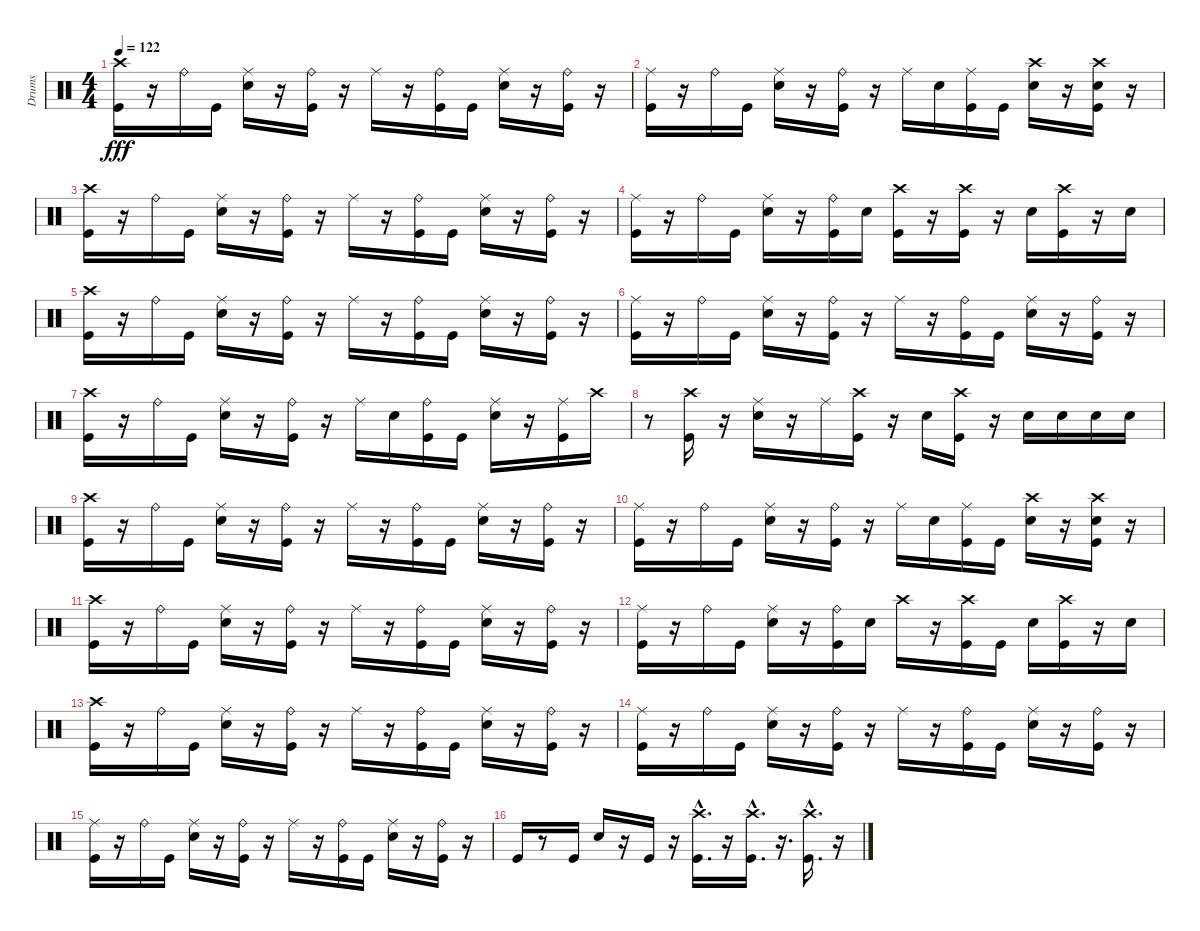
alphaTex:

\track ("Drums" "Drums") {instrument percussion}
\staff {score}
\articulation defaults
\ts (4 4)
\tempo 122
\clef neutral
\ks c
("Crash high (hit)" "Kick (hit)").16{dy fff} r.16 "Ride (bell)".16 "Kick (hit)".16 ("Snare (hit) 2" "Ride (middle)").16 r.16 ("Kick (hit)" "Ride (bell)").16 r.16 "Ride (middle)".16 r.16 ("Kick (hit)" "Ride (bell)").16 "Kick (hit)".16 ("Snare (hit) 2" "Ride (middle)").16 r.16 ("Kick (hit)" "Ride (bell)").16 r.16 |
("Ride (middle)" "Kick (hit)").16 r.16 "Ride (bell)".16 "Kick (hit)".16 ("Ride (middle)" "Snare (hit) 2").16 r.16 ("Ride (bell)" "Kick (hit)").16 r.16 "Ride (middle)".16 "Snare (hit) 2".16 ("Ride (middle)" "Kick (hit)").16 "Kick (hit)".16 ("Crash high (hit)" "Snare (hit) 2").16 r.16 ("Crash high (hit)" "Snare (hit) 2" "Kick (hit)").16 r.16 |
("Crash high (hit)" "Kick (hit)").16 r.16 "Ride (bell)".16 "Kick (hit)".16 ("Snare (hit) 2" "Ride (middle)").16 r.16 ("Kick (hit)" "Ride (bell)").16 r.16 "Ride (middle)".16 r.16 ("Kick (hit)" "Ride (bell)").16 "Kick (hit)".16 ("Snare (hit) 2" "Ride (middle)").16 r.16 ("Kick (hit)" "Ride (bell)").16 r.16 |
("Ride (middle)" "Kick (hit)").16 r.16 "Ride (bell)".16 "Kick (hit)".16 ("Ride (middle)" "Snare (hit) 2").16 r.16 ("Ride (bell)" "Kick (hit)").16 "Snare (hit) 2".16 ("Crash high (hit)" "Kick (hit)").16 r.16 ("Crash high (hit)" "Kick (hit)").16 r.16 "Snare (hit) 2".16 ("Crash high (hit)" "Kick (hit)").16 r.16 "Snare (hit) 2".16 |
("Crash high (hit)" "Kick (hit)").16 r.16 "Ride (bell)".16 "Kick (hit)".16 ("Snare (hit) 2" "Ride (middle)").16 r.16 ("Kick (hit)" "Ride (bell)").16 r.16 "Ride (middle)".16 r.16 ("Kick (hit)" "Ride (bell)").16 "Kick (hit)".16 ("Snare (hit) 2" "Ride (middle)").16 r.16 ("Kick (hit)" "Ride (bell)").16 r.16 |
("Ride (middle)" "Kick (hit)").16 r.16 "Ride (bell)".16 "Kick (hit)".16 ("Ride (middle)" "Snare (hit) 2").16 r.16 ("Ride (bell)" "Kick (hit)").16 r.16 "Ride (middle)".16 r.16 ("Ride (bell)" "Kick (hit)").16 "Kick (hit)".16 ("Ride (middle)" "Snare (hit) 2").16 r.16 ("Ride (bell)" "Kick (hit)").16 r.16 |
("Crash high (hit)" "Kick (hit)").16 r.16 "Ride (bell)".16 "Kick (hit)".16 ("Snare (hit) 2" "Ride (middle)").16 r.16 ("Kick (hit)" "Ride (bell)").16 r.16 "Ride (middle)".16 "Snare (hit) 2".16 ("Kick (hit)" "Ride (bell)").16 "Kick (hit)".16 ("Snare (hit) 2" "Ride (middle)").16 r.16 ("Kick (hit)" "Ride (middle)").16 "Crash high (hit)".16 |
r.8 ("Crash high (hit)" "Kick (hit)").16 r.16 ("Ride (middle)" "Snare (hit) 2").16 r.16 "Ride (middle)".16 ("Crash high (hit)" "Kick (hit)").16 r.16 "Snare (hit) 2".16 ("Crash high (hit)" "Kick (hit)").16 r.16 "Snare (hit) 2".16 "Snare (hit) 2".16 "Snare (hit) 2".16 "Snare (hit) 2".16 |
("Crash high (hit)" "Kick (hit)").16 r.16 "Ride (bell)".16 "Kick (hit)".16 ("Snare (hit) 2" "Ride (middle)").16 r.16 ("Kick (hit)" "Ride (bell)").16 r.16 "Ride (middle)".16 r.16 ("Kick (hit)" "Ride (bell)").16 "Kick (hit)".16 ("Snare (hit) 2" "Ride (middle)").16 r.16 ("Kick (hit)" "Ride (bell)").16 r.16 |
("Ride (middle)" "Kick (hit)").16 r.16 "Ride (bell)".16 "Kick (hit)".16 ("Ride (middle)" "Snare (hit) 2").16 r.16 ("Ride (bell)" "Kick (hit)").16 r.16 "Ride (middle)".16 "Snare (hit) 2".16 ("Ride (middle)" "Kick (hit)").16 "Kick (hit)".16 ("Crash high (hit)" "Snare (hit) 2").16 r.16 ("Crash high (hit)" "Snare (hit) 2" "Kick (hit)").16 r.16 |
("Crash high (hit)" "Kick (hit)").16 r.16 "Ride (bell)".16 "Kick (hit)".16 ("Snare (hit) 2" "Ride (middle)").16 r.16 ("Kick (hit)" "Ride (bell)").16 r.16 "Ride (middle)".16 r.16 ("Kick (hit)" "Ride (bell)").16 "Kick (hit)".16 ("Snare (hit) 2" "Ride (middle)").16 r.16 ("Kick (hit)" "Ride (bell)").16 r.16 |
("Ride (middle)" "Kick (hit)").16 r.16 "Ride (bell)".16 "Kick (hit)".16 ("Ride (middle)" "Snare (hit) 2").16 r.16 ("Ride (bell)" "Kick (hit)").16 "Snare (hit) 2".16 "Crash high (hit)".16 r.16 ("Crash high (hit)" "Kick (hit)").16 "Kick (hit)".16 "Snare (hit) 2".16 ("Crash high (hit)" "Kick (hit)").16 r.16 "Snare (hit) 2".16 |
("Crash high (hit)" "Kick (hit)").16 r.16 "Ride (bell)".16 "Kick (hit)".16 ("Snare (hit) 2" "Ride (middle)").16 r.16 ("Kick (hit)" "Ride (bell)").16 r.16 "Ride (middle)".16 r.16 ("Kick (hit)" "Ride (bell)").16 "Kick (hit)".16 ("Snare (hit) 2" "Ride (middle)").16 r.16 ("Kick (hit)" "Ride (bell)").16 r.16 |
("Ride (middle)" "Kick (hit)").16 r.16 "Ride (bell)".16 "Kick (hit)".16 ("Ride (middle)" "Snare (hit) 2").16 r.16 ("Ride (bell)" "Kick (hit)").16 r.16 "Ride (middle)".16 r.16 ("Ride (bell)" "Kick (hit)").16 "Kick (hit)".16 ("Ride (middle)" "Snare (hit) 2").16 r.16 ("Ride (bell)" "Kick (hit)").16 r.16 |
("Ride (middle)" "Kick (hit)").16 r.16 "Ride (bell)".16 "Kick (hit)".16 ("Ride (middle)" "Snare (hit) 2").16 r.16 ("Ride (bell)" "Kick (hit)").16 r.16 "Ride (middle)".16 r.16 ("Ride (bell)" "Kick (hit)").16 "Kick (hit)".16 ("Ride (middle)" "Snare (hit) 2").16 r.16 ("Ride (bell)" "Kick (hit)").16 r.16 |
"Kick (hit)".16 r.8 "Kick (hit)".16 "Snare (hit) 2".16 r.16 "Kick (hit)".16 r.16 ("Kick (hit)"{hac} "Crash high (hit)"{hac}).16{d} r.16 ("Kick (hit)"{hac} "Crash high (hit)"{hac}).16{d} r.16{d} ("Kick (hit)"{hac} "Crash high (hit)"{hac}).16{d} r.16
